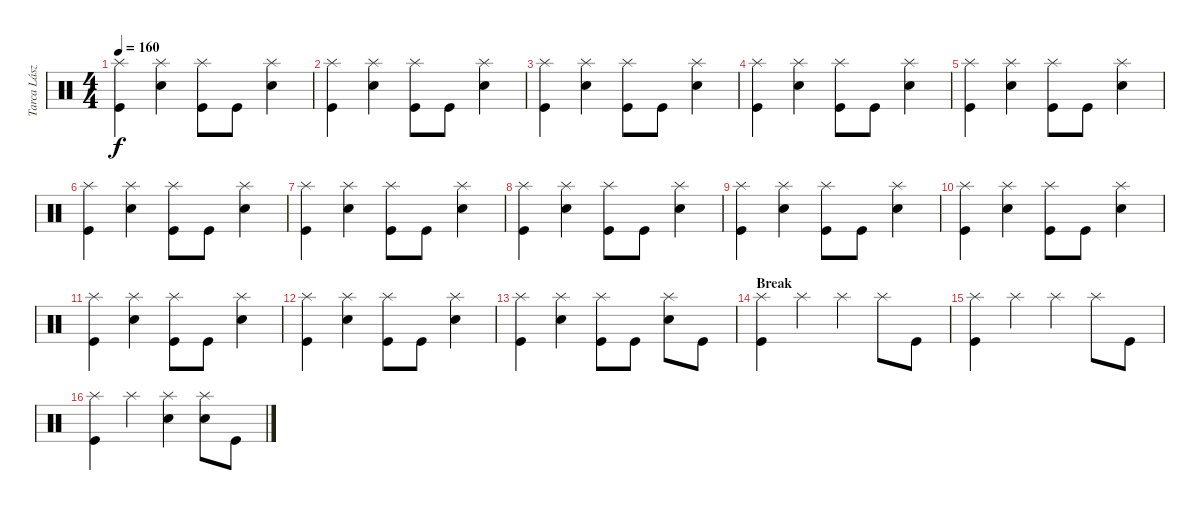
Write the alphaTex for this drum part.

\track ("Tarca László" "Tarca Lász") {instrument percussion}
\staff {score}
\articulation defaults
\ts (4 4)
\tempo 160
\clef neutral
\ks c
("Splash (hit)" "Kick (hit)").4{dy f} ("Splash (hit)" "Electric Snare (hit)").4 ("Splash (hit)" "Kick (hit)").8 "Kick (hit)".8 ("Splash (hit)" "Electric Snare (hit)").4 |
("Splash (hit)" "Kick (hit)").4 ("Splash (hit)" "Electric Snare (hit)").4 ("Splash (hit)" "Kick (hit)").8 "Kick (hit)".8 ("Splash (hit)" "Electric Snare (hit)").4 |
("Splash (hit)" "Kick (hit)").4 ("Splash (hit)" "Electric Snare (hit)").4 ("Splash (hit)" "Kick (hit)").8 "Kick (hit)".8 ("Splash (hit)" "Electric Snare (hit)").4 |
("Splash (hit)" "Kick (hit)").4 ("Splash (hit)" "Electric Snare (hit)").4 ("Splash (hit)" "Kick (hit)").8 "Kick (hit)".8 ("Splash (hit)" "Electric Snare (hit)").4 |
("Splash (hit)" "Kick (hit)").4 ("Splash (hit)" "Electric Snare (hit)").4 ("Splash (hit)" "Kick (hit)").8 "Kick (hit)".8 ("Splash (hit)" "Electric Snare (hit)").4 |
("Splash (hit)" "Kick (hit)").4 ("Splash (hit)" "Electric Snare (hit)").4 ("Splash (hit)" "Kick (hit)").8 "Kick (hit)".8 ("Splash (hit)" "Electric Snare (hit)").4 |
("Splash (hit)" "Kick (hit)").4 ("Splash (hit)" "Electric Snare (hit)").4 ("Splash (hit)" "Kick (hit)").8 "Kick (hit)".8 ("Splash (hit)" "Electric Snare (hit)").4 |
("Splash (hit)" "Kick (hit)").4 ("Splash (hit)" "Electric Snare (hit)").4 ("Splash (hit)" "Kick (hit)").8 "Kick (hit)".8 ("Splash (hit)" "Electric Snare (hit)").4 |
("Splash (hit)" "Kick (hit)").4 ("Splash (hit)" "Electric Snare (hit)").4 ("Splash (hit)" "Kick (hit)").8 "Kick (hit)".8 ("Splash (hit)" "Electric Snare (hit)").4 |
("Splash (hit)" "Kick (hit)").4 ("Splash (hit)" "Electric Snare (hit)").4 ("Splash (hit)" "Kick (hit)").8 "Kick (hit)".8 ("Splash (hit)" "Electric Snare (hit)").4 |
("Splash (hit)" "Kick (hit)").4 ("Splash (hit)" "Electric Snare (hit)").4 ("Splash (hit)" "Kick (hit)").8 "Kick (hit)".8 ("Splash (hit)" "Electric Snare (hit)").4 |
("Splash (hit)" "Kick (hit)").4 ("Splash (hit)" "Electric Snare (hit)").4 ("Splash (hit)" "Kick (hit)").8 "Kick (hit)".8 ("Splash (hit)" "Electric Snare (hit)").4 |
("Splash (hit)" "Kick (hit)").4 ("Splash (hit)" "Electric Snare (hit)").4 ("Splash (hit)" "Kick (hit)").8 "Kick (hit)".8 ("Splash (hit)" "Electric Snare (hit)").8 "Kick (hit)".8 |
\section ("" "Break")
("Splash (hit)" "Kick (hit)").4 "Splash (hit)".4 "Splash (hit)".4 "Splash (hit)".8 "Kick (hit)".8 |
("Splash (hit)" "Kick (hit)").4 "Splash (hit)".4 "Splash (hit)".4 "Splash (hit)".8 "Kick (hit)".8 |
("Splash (hit)" "Kick (hit)").4 "Splash (hit)".4 ("Splash (hit)" "Snare (hit) 2").4 ("Splash (hit)" "Snare (hit) 2").8 "Kick (hit)".8
